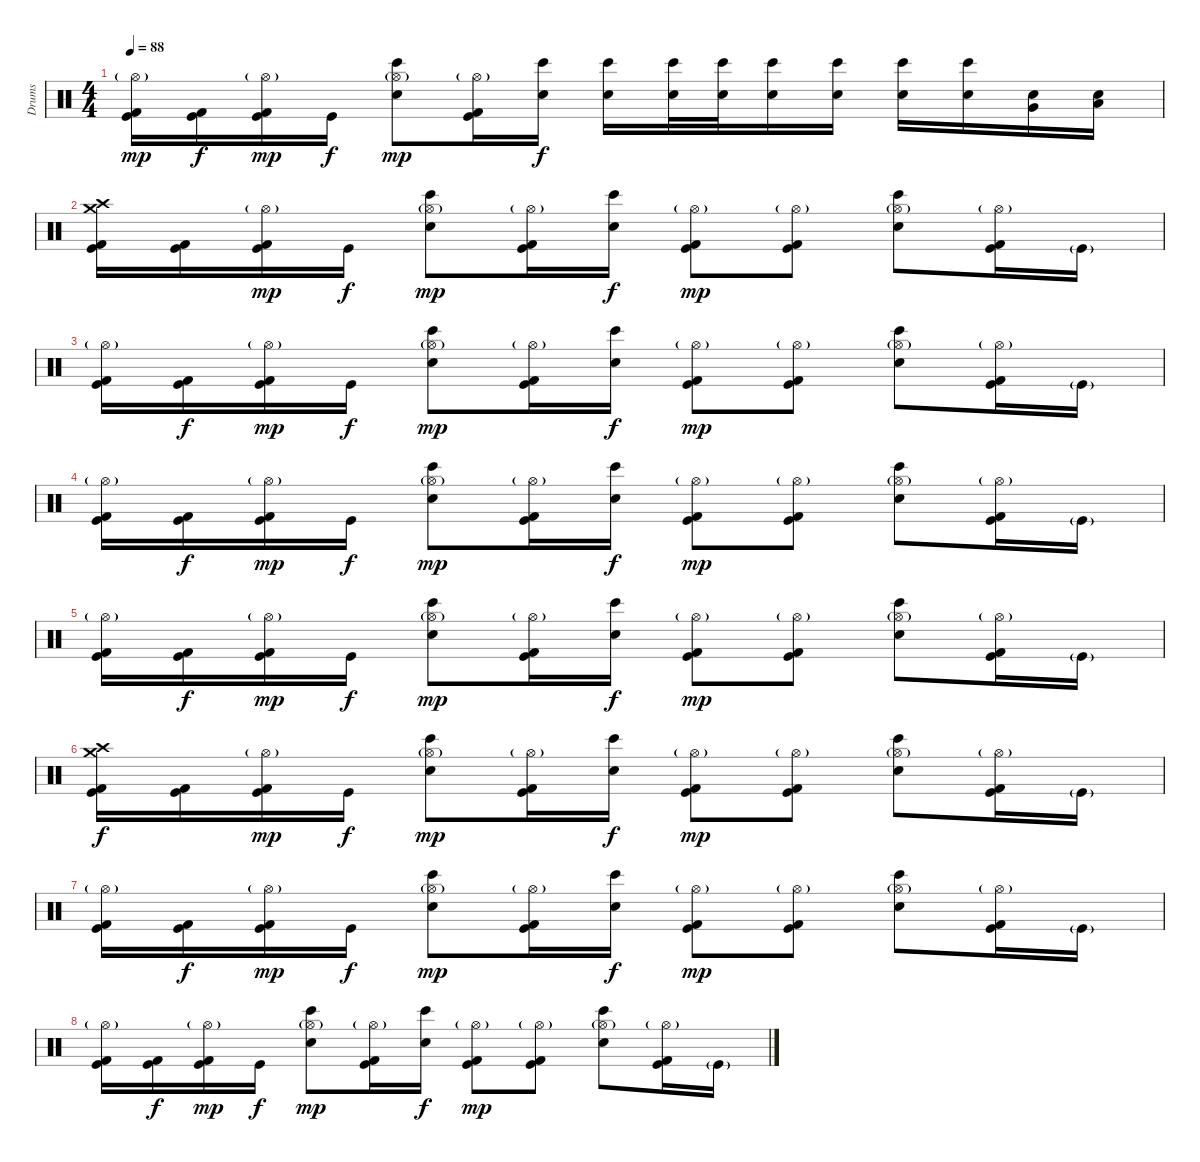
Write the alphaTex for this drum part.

\track ("Drums" "Drums") {instrument percussion}
\staff {score}
\articulation defaults
\ts (4 4)
\tempo 88
\clef neutral
\ks c
("Hi-Hat (open)"{g} "Kick (hit) 2" "Kick (hit)").16{dy mp} ("Kick (hit) 2" "Kick (hit)").16{dy f} ("Hi-Hat (open)"{g} "Kick (hit) 2" "Kick (hit)").16{dy mp} "Kick (hit)".16{dy f} ("Hi-Hat (open)"{g} "Bongo High (hit)" "Snare (hit) 2").8{dy mp} ("Hi-Hat (open)"{g} "Kick (hit) 2" "Kick (hit)").16 ("Bongo High (hit)" "Snare (hit) 2").16{dy f} ("Bongo High (hit)" "Snare (hit) 2").16 ("Bongo High (hit)" "Snare (hit) 2").32 ("Bongo High (hit)" "Snare (hit) 2").32 ("Bongo High (hit)" "Snare (hit) 2").16 ("Bongo High (hit)" "Snare (hit) 2").16 ("Bongo High (hit)" "Snare (hit) 2").16 ("Bongo High (hit)" "Snare (hit) 2").16 ("Snare (hit) 2" "Very Low Tom (hit)").16 ("Snare (hit) 2" "Low Floor Tom (hit)").16 |
("Crash medium (hit)" "Crash high (hit)" "Kick (hit) 2" "Kick (hit)").16 ("Kick (hit) 2" "Kick (hit)").16 ("Hi-Hat (open)"{g} "Kick (hit) 2" "Kick (hit)").16{dy mp} "Kick (hit)".16{dy f} ("Hi-Hat (open)"{g} "Bongo High (hit)" "Snare (hit) 2").8{dy mp} ("Hi-Hat (open)"{g} "Kick (hit) 2" "Kick (hit)").16 ("Bongo High (hit)" "Snare (hit) 2").16{dy f} ("Hi-Hat (open)"{g} "Kick (hit) 2" "Kick (hit)").8{dy mp} ("Hi-Hat (open)"{g} "Kick (hit) 2" "Kick (hit)").8 ("Hi-Hat (open)"{g} "Bongo High (hit)" "Snare (hit) 2").8 ("Hi-Hat (open)"{g} "Kick (hit) 2" "Kick (hit)").16 "Kick (hit)"{g}.16 |
("Hi-Hat (open)"{g} "Kick (hit) 2" "Kick (hit)").16 ("Kick (hit) 2" "Kick (hit)").16{dy f} ("Hi-Hat (open)"{g} "Kick (hit) 2" "Kick (hit)").16{dy mp} "Kick (hit)".16{dy f} ("Hi-Hat (open)"{g} "Bongo High (hit)" "Snare (hit) 2").8{dy mp} ("Hi-Hat (open)"{g} "Kick (hit) 2" "Kick (hit)").16 ("Bongo High (hit)" "Snare (hit) 2").16{dy f} ("Hi-Hat (open)"{g} "Kick (hit) 2" "Kick (hit)").8{dy mp} ("Hi-Hat (open)"{g} "Kick (hit) 2" "Kick (hit)").8 ("Hi-Hat (open)"{g} "Bongo High (hit)" "Snare (hit) 2").8 ("Hi-Hat (open)"{g} "Kick (hit) 2" "Kick (hit)").16 "Kick (hit)"{g}.16 |
("Hi-Hat (open)"{g} "Kick (hit) 2" "Kick (hit)").16 ("Kick (hit) 2" "Kick (hit)").16{dy f} ("Hi-Hat (open)"{g} "Kick (hit) 2" "Kick (hit)").16{dy mp} "Kick (hit)".16{dy f} ("Hi-Hat (open)"{g} "Bongo High (hit)" "Snare (hit) 2").8{dy mp} ("Hi-Hat (open)"{g} "Kick (hit) 2" "Kick (hit)").16 ("Bongo High (hit)" "Snare (hit) 2").16{dy f} ("Hi-Hat (open)"{g} "Kick (hit) 2" "Kick (hit)").8{dy mp} ("Hi-Hat (open)"{g} "Kick (hit) 2" "Kick (hit)").8 ("Hi-Hat (open)"{g} "Bongo High (hit)" "Snare (hit) 2").8 ("Hi-Hat (open)"{g} "Kick (hit) 2" "Kick (hit)").16 "Kick (hit)"{g}.16 |
("Hi-Hat (open)"{g} "Kick (hit) 2" "Kick (hit)").16 ("Kick (hit) 2" "Kick (hit)").16{dy f} ("Hi-Hat (open)"{g} "Kick (hit) 2" "Kick (hit)").16{dy mp} "Kick (hit)".16{dy f} ("Hi-Hat (open)"{g} "Bongo High (hit)" "Snare (hit) 2").8{dy mp} ("Hi-Hat (open)"{g} "Kick (hit) 2" "Kick (hit)").16 ("Bongo High (hit)" "Snare (hit) 2").16{dy f} ("Hi-Hat (open)"{g} "Kick (hit) 2" "Kick (hit)").8{dy mp} ("Hi-Hat (open)"{g} "Kick (hit) 2" "Kick (hit)").8 ("Hi-Hat (open)"{g} "Bongo High (hit)" "Snare (hit) 2").8 ("Hi-Hat (open)"{g} "Kick (hit) 2" "Kick (hit)").16 "Kick (hit)"{g}.16 |
("Crash medium (hit)" "Crash high (hit)" "Kick (hit) 2" "Kick (hit)").16{dy f} ("Kick (hit) 2" "Kick (hit)").16 ("Hi-Hat (open)"{g} "Kick (hit) 2" "Kick (hit)").16{dy mp} "Kick (hit)".16{dy f} ("Hi-Hat (open)"{g} "Bongo High (hit)" "Snare (hit) 2").8{dy mp} ("Hi-Hat (open)"{g} "Kick (hit) 2" "Kick (hit)").16 ("Bongo High (hit)" "Snare (hit) 2").16{dy f} ("Hi-Hat (open)"{g} "Kick (hit) 2" "Kick (hit)").8{dy mp} ("Hi-Hat (open)"{g} "Kick (hit) 2" "Kick (hit)").8 ("Hi-Hat (open)"{g} "Bongo High (hit)" "Snare (hit) 2").8 ("Hi-Hat (open)"{g} "Kick (hit) 2" "Kick (hit)").16 "Kick (hit)"{g}.16 |
("Hi-Hat (open)"{g} "Kick (hit) 2" "Kick (hit)").16 ("Kick (hit) 2" "Kick (hit)").16{dy f} ("Hi-Hat (open)"{g} "Kick (hit) 2" "Kick (hit)").16{dy mp} "Kick (hit)".16{dy f} ("Hi-Hat (open)"{g} "Bongo High (hit)" "Snare (hit) 2").8{dy mp} ("Hi-Hat (open)"{g} "Kick (hit) 2" "Kick (hit)").16 ("Bongo High (hit)" "Snare (hit) 2").16{dy f} ("Hi-Hat (open)"{g} "Kick (hit) 2" "Kick (hit)").8{dy mp} ("Hi-Hat (open)"{g} "Kick (hit) 2" "Kick (hit)").8 ("Hi-Hat (open)"{g} "Bongo High (hit)" "Snare (hit) 2").8 ("Hi-Hat (open)"{g} "Kick (hit) 2" "Kick (hit)").16 "Kick (hit)"{g}.16 |
("Hi-Hat (open)"{g} "Kick (hit) 2" "Kick (hit)").16 ("Kick (hit) 2" "Kick (hit)").16{dy f} ("Hi-Hat (open)"{g} "Kick (hit) 2" "Kick (hit)").16{dy mp} "Kick (hit)".16{dy f} ("Hi-Hat (open)"{g} "Bongo High (hit)" "Snare (hit) 2").8{dy mp} ("Hi-Hat (open)"{g} "Kick (hit) 2" "Kick (hit)").16 ("Bongo High (hit)" "Snare (hit) 2").16{dy f} ("Hi-Hat (open)"{g} "Kick (hit) 2" "Kick (hit)").8{dy mp} ("Hi-Hat (open)"{g} "Kick (hit) 2" "Kick (hit)").8 ("Hi-Hat (open)"{g} "Bongo High (hit)" "Snare (hit) 2").8 ("Hi-Hat (open)"{g} "Kick (hit) 2" "Kick (hit)").16 "Kick (hit)"{g}.16
